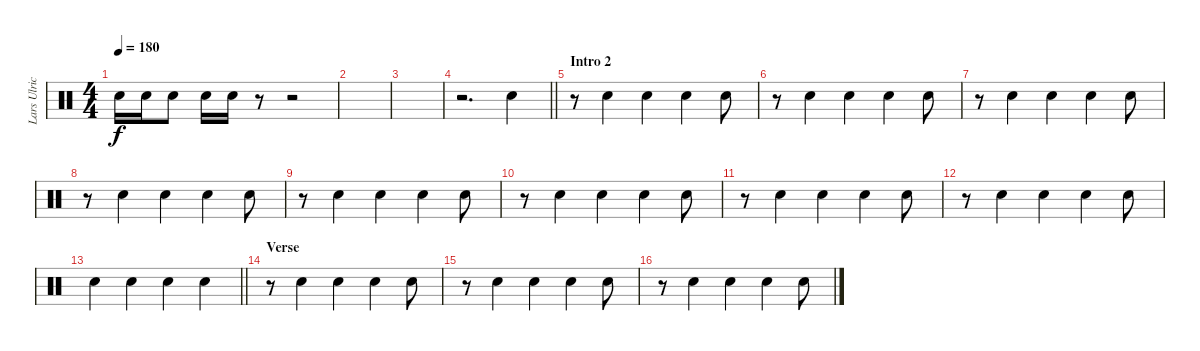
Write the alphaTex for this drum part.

\track ("Lars Ulrich" "Lars Ulric") {instrument percussion}
\staff {score}
\articulation defaults
\ts (4 4)
\tempo 180
\clef neutral
\ks c "Snare (hit) 2".16{dy f} "Snare (hit) 2".16 "Snare (hit) 2".8 "Snare (hit) 2".16 "Snare (hit) 2".16
r.8 r.2 |
|
|
\barLineRight lightlight
r.2{d} "Snare (hit) 2".4 |
\section ("" "Intro 2")
r.8 "Snare (hit) 2".4 "Snare (hit) 2".4 "Snare (hit) 2".4 "Snare (hit) 2".8 |
r.8 "Snare (hit) 2".4 "Snare (hit) 2".4 "Snare (hit) 2".4 "Snare (hit) 2".8 |
r.8 "Snare (hit) 2".4 "Snare (hit) 2".4 "Snare (hit) 2".4 "Snare (hit) 2".8 |
r.8 "Snare (hit) 2".4 "Snare (hit) 2".4 "Snare (hit) 2".4 "Snare (hit) 2".8 |
r.8 "Snare (hit) 2".4 "Snare (hit) 2".4 "Snare (hit) 2".4 "Snare (hit) 2".8 |
r.8 "Snare (hit) 2".4 "Snare (hit) 2".4 "Snare (hit) 2".4 "Snare (hit) 2".8 |
r.8 "Snare (hit) 2".4 "Snare (hit) 2".4 "Snare (hit) 2".4 "Snare (hit) 2".8 |
r.8 "Snare (hit) 2".4 "Snare (hit) 2".4 "Snare (hit) 2".4 "Snare (hit) 2".8 |
\barLineRight lightlight "Snare (hit) 2".4 "Snare (hit) 2".4 "Snare (hit) 2".4 "Snare (hit) 2".4
|
\section ("" "Verse")
r.8 "Snare (hit) 2".4 "Snare (hit) 2".4 "Snare (hit) 2".4 "Snare (hit) 2".8 |
r.8 "Snare (hit) 2".4 "Snare (hit) 2".4 "Snare (hit) 2".4 "Snare (hit) 2".8 |
r.8 "Snare (hit) 2".4 "Snare (hit) 2".4 "Snare (hit) 2".4 "Snare (hit) 2".8
